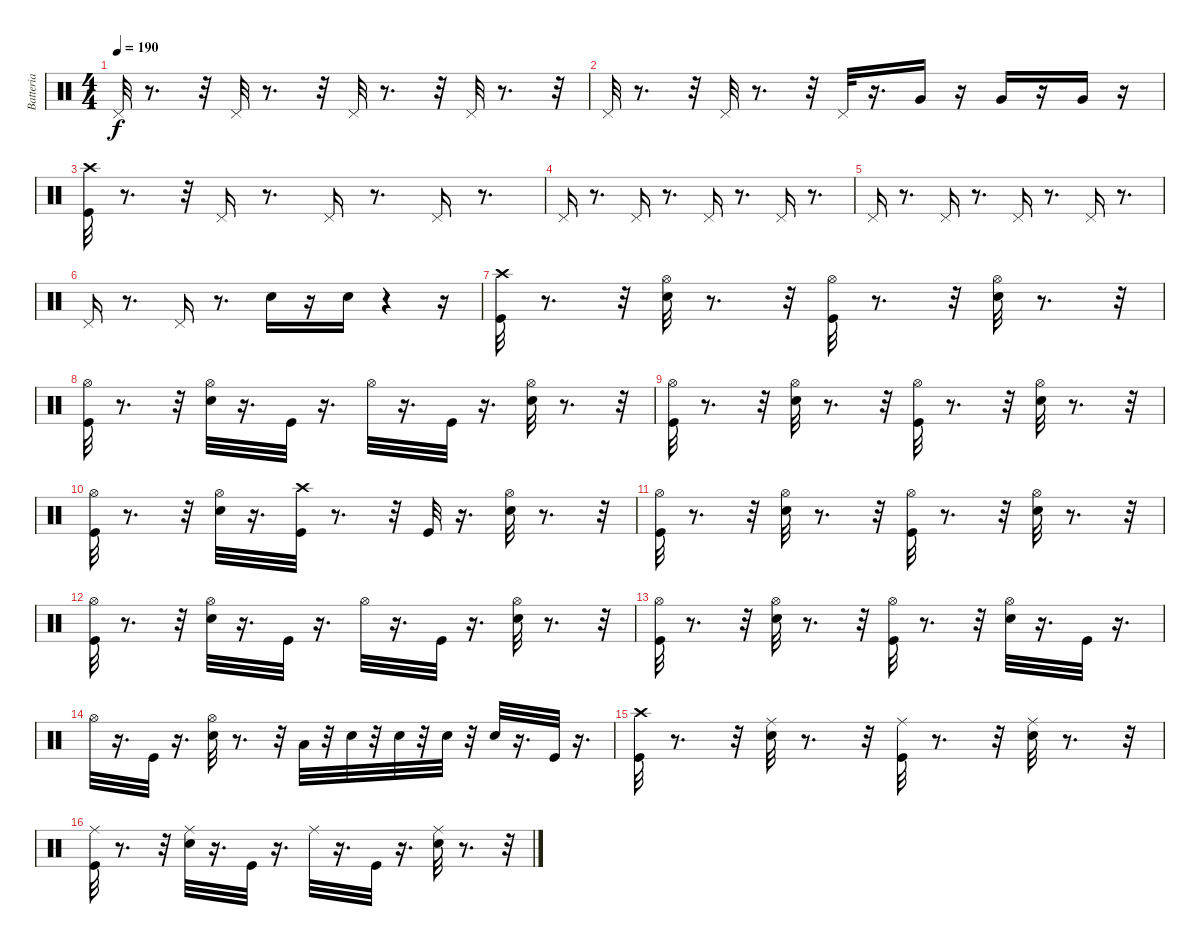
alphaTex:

\track ("Batteria" "Batteria") {instrument percussion}
\staff {score}
\articulation defaults
\ts (4 4)
\tempo 190
\clef neutral
\ks c "Pedal Hi-Hat (hit)".32{dy f}
r.8{d} r.32 "Pedal Hi-Hat (hit)".32 r.8{d} r.32 "Pedal Hi-Hat (hit)".32 r.8{d} r.32 "Pedal Hi-Hat (hit)".32 r.8{d} r.32 |
"Pedal Hi-Hat (hit)".32 r.8{d} r.32 "Pedal Hi-Hat (hit)".32 r.8{d} r.32 "Pedal Hi-Hat (hit)".32 r.16{d} "Very Low Tom (hit)".16 r.16 "Very Low Tom (hit)".16 r.16 "Very Low Tom (hit)".16 r.16 |
("Kick (hit)" "Crash high (hit)").32 r.8{d} r.32 "Pedal Hi-Hat (hit)".16 r.8{d} "Pedal Hi-Hat (hit)".16 r.8{d} "Pedal Hi-Hat (hit)".16 r.8{d} |
"Pedal Hi-Hat (hit)".16 r.8{d} "Pedal Hi-Hat (hit)".16 r.8{d} "Pedal Hi-Hat (hit)".16 r.8{d} "Pedal Hi-Hat (hit)".16 r.8{d} |
"Pedal Hi-Hat (hit)".16 r.8{d} "Pedal Hi-Hat (hit)".16 r.8{d} "Pedal Hi-Hat (hit)".16 r.8{d} "Pedal Hi-Hat (hit)".16 r.8{d} |
"Pedal Hi-Hat (hit)".16 r.8{d} "Pedal Hi-Hat (hit)".16 r.8{d} "Snare (hit) 2".16 r.16 "Snare (hit) 2".16 r.4 r.16 |
("Kick (hit)" "Crash high (hit)").32 r.8{d} r.32 ("Hi-Hat (open)" "Snare (hit) 2").32 r.8{d} r.32 ("Hi-Hat (open)" "Kick (hit)").32 r.8{d} r.32 ("Snare (hit) 2" "Hi-Hat (open)").32 r.8{d} r.32 |
("Hi-Hat (open)" "Kick (hit)").32 r.8{d} r.32 ("Hi-Hat (open)" "Snare (hit) 2").32 r.16{d} "Kick (hit)".32 r.16{d} "Hi-Hat (open)".32 r.16{d} "Kick (hit)".32 r.16{d} ("Hi-Hat (open)" "Snare (hit) 2").32 r.8{d} r.32 |
("Hi-Hat (open)" "Kick (hit)").32 r.8{d} r.32 ("Snare (hit) 2" "Hi-Hat (open)").32 r.8{d} r.32 ("Kick (hit)" "Hi-Hat (open)").32 r.8{d} r.32 ("Hi-Hat (open)" "Snare (hit) 2").32 r.8{d} r.32 |
("Hi-Hat (open)" "Kick (hit)").32 r.8{d} r.32 ("Hi-Hat (open)" "Snare (hit) 2").32 r.16{d} ("Crash high (hit)" "Kick (hit)").32 r.8{d} r.32 "Kick (hit)".32 r.16{d} ("Hi-Hat (open)" "Snare (hit) 2").32 r.8{d} r.32 |
("Hi-Hat (open)" "Kick (hit)").32 r.8{d} r.32 ("Snare (hit) 2" "Hi-Hat (open)").32 r.8{d} r.32 ("Kick (hit)" "Hi-Hat (open)").32 r.8{d} r.32 ("Snare (hit) 2" "Hi-Hat (open)").32 r.8{d} r.32 |
("Kick (hit)" "Hi-Hat (open)").32 r.8{d} r.32 ("Hi-Hat (open)" "Snare (hit) 2").32 r.16{d} "Kick (hit)".32 r.16{d} "Hi-Hat (open)".32 r.16{d} "Kick (hit)".32 r.16{d} ("Snare (hit) 2" "Hi-Hat (open)").32 r.8{d} r.32 |
("Hi-Hat (open)" "Kick (hit)").32 r.8{d} r.32 ("Hi-Hat (open)" "Snare (hit) 2").32 r.8{d} r.32 ("Kick (hit)" "Hi-Hat (open)").32 r.8{d} r.32 ("Snare (hit) 2" "Hi-Hat (open)").32 r.16{d} "Kick (hit)".32 r.16{d} |
"Hi-Hat (open)".32 r.16{d} "Kick (hit)".32 r.16{d} ("Snare (hit) 2" "Hi-Hat (open)").32 r.8{d} r.32 "Low Tom (hit)".32 r.32 "Snare (hit) 2".32 r.32 "Snare (hit) 2".32 r.32 "Snare (hit) 2".32 r.32 "Snare (hit) 2".32 r.16{d} "Kick (hit)".32 r.16{d} |
("Crash high (hit)" "Kick (hit)").32 r.8{d} r.32 ("Snare (hit) 2" "Ride (middle)").32 r.8{d} r.32 ("Kick (hit)" "Ride (middle)").32 r.8{d} r.32 ("Ride (middle)" "Snare (hit) 2").32 r.8{d} r.32 |
("Ride (middle)" "Kick (hit)").32 r.8{d} r.32 ("Snare (hit) 2" "Ride (middle)").32 r.16{d} "Kick (hit)".32 r.16{d} "Ride (middle)".32 r.16{d} "Kick (hit)".32 r.16{d} ("Ride (middle)" "Snare (hit) 2").32 r.8{d} r.32
